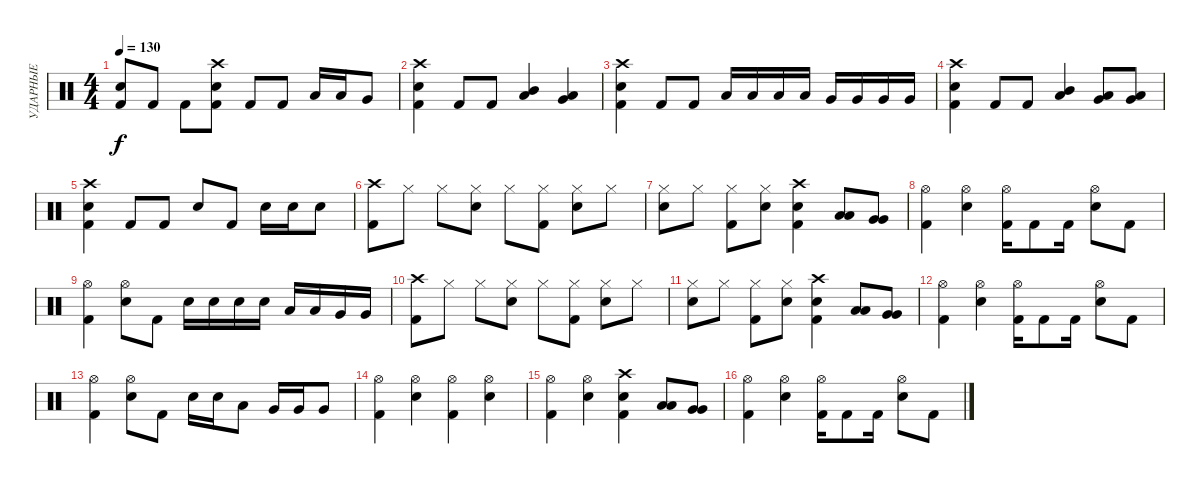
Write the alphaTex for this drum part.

\track ("УДАРНЫЕ" "УДАРНЫЕ") {instrument percussion}
\staff {score}
\articulation defaults
\ts (4 4)
\tempo 130
\clef neutral
\ks c
("Snare (hit) 2" "Kick (hit) 2").8{dy f} "Kick (hit) 2".8 "Kick (hit) 2".8 ("Crash high (hit)" "Snare (hit) 2" "Kick (hit) 2").8 "Kick (hit) 2".8 "Kick (hit) 2".8 "Low Tom (hit)".16 "Low Tom (hit)".16 "Very Low Tom (hit)".8 |
("Snare (hit) 2" "Kick (hit) 2" "Crash high (hit)").4 "Kick (hit) 2".8 "Kick (hit) 2".8 ("Low Tom (hit)" "Mid Tom (hit)").4 ("Very Low Tom (hit)" "Low Tom (hit)").4 |
("Snare (hit) 2" "Kick (hit) 2" "Crash high (hit)").4 "Kick (hit) 2".8 "Kick (hit) 2".8 "Low Tom (hit)".16 "Low Tom (hit)".16 "Low Tom (hit)".16 "Low Tom (hit)".16 "Very Low Tom (hit)".16 "Very Low Tom (hit)".16 "Very Low Tom (hit)".16 "Very Low Tom (hit)".16 |
("Snare (hit) 2" "Kick (hit) 2" "Crash high (hit)").4 "Kick (hit) 2".8 "Kick (hit) 2".8 ("Low Tom (hit)" "Mid Tom (hit)").4 ("Very Low Tom (hit)" "Low Tom (hit)").8 ("Very Low Tom (hit)" "Low Tom (hit)").8 |
("Snare (hit) 2" "Kick (hit) 2" "Crash high (hit)").4 "Kick (hit) 2".8 "Kick (hit) 2".8 "Snare (hit) 2".8 "Kick (hit) 2".8 "Snare (hit) 2".16 "Snare (hit) 2".16 "Snare (hit) 2".8 |
("Crash high (hit)" "Kick (hit) 2").8 "Hi-Hat (closed)".8 "Hi-Hat (closed)".8 ("Hi-Hat (closed)" "Snare (hit) 2").8 "Hi-Hat (closed)".8 ("Hi-Hat (closed)" "Kick (hit) 2").8 ("Hi-Hat (closed)" "Snare (hit) 2").8 "Hi-Hat (closed)".8 |
("Hi-Hat (closed)" "Snare (hit) 2").8 "Hi-Hat (closed)".8 ("Hi-Hat (closed)" "Kick (hit) 2").8 ("Hi-Hat (closed)" "Snare (hit) 2").8 ("Snare (hit) 2" "Kick (hit) 2" "Crash high (hit)").4 ("Low Tom (hit)" "Low Tom (hit)").8 ("Very Low Tom (hit)" "Very Low Tom (hit)").8 |
("Hi-Hat (open)" "Kick (hit) 2").4 ("Hi-Hat (open)" "Snare (hit) 2").4 ("Hi-Hat (open)" "Kick (hit) 2").16 "Kick (hit) 2".8 "Kick (hit) 2".16 ("Hi-Hat (open)" "Snare (hit) 2").8 "Kick (hit) 2".8 |
("Hi-Hat (open)" "Kick (hit) 2").4 ("Hi-Hat (open)" "Snare (hit) 2").8 "Kick (hit) 2".8 "Snare (hit) 2".16 "Snare (hit) 2".16 "Snare (hit) 2".16 "Snare (hit) 2".16 "Low Tom (hit)".16 "Low Tom (hit)".16 "Very Low Tom (hit)".16 "Very Low Tom (hit)".16 |
("Crash high (hit)" "Kick (hit) 2").8 "Hi-Hat (closed)".8 "Hi-Hat (closed)".8 ("Hi-Hat (closed)" "Snare (hit) 2").8 "Hi-Hat (closed)".8 ("Hi-Hat (closed)" "Kick (hit) 2").8 ("Hi-Hat (closed)" "Snare (hit) 2").8 "Hi-Hat (closed)".8 |
("Hi-Hat (closed)" "Snare (hit) 2").8 "Hi-Hat (closed)".8 ("Hi-Hat (closed)" "Kick (hit) 2").8 ("Hi-Hat (closed)" "Snare (hit) 2").8 ("Snare (hit) 2" "Kick (hit) 2" "Crash high (hit)").4 ("Low Tom (hit)" "Low Tom (hit)").8 ("Very Low Tom (hit)" "Very Low Tom (hit)").8 |
("Hi-Hat (open)" "Kick (hit) 2").4 ("Hi-Hat (open)" "Snare (hit) 2").4 ("Hi-Hat (open)" "Kick (hit) 2").16 "Kick (hit) 2".8 "Kick (hit) 2".16 ("Hi-Hat (open)" "Snare (hit) 2").8 "Kick (hit) 2".8 |
("Hi-Hat (open)" "Kick (hit) 2").4 ("Hi-Hat (open)" "Snare (hit) 2").8 "Kick (hit) 2".8 "Snare (hit) 2".16 "Snare (hit) 2".16 "Low Tom (hit)".8 "Very Low Tom (hit)".16 "Very Low Tom (hit)".16 "Very Low Tom (hit)".8 |
("Kick (hit) 2" "Hi-Hat (open)").4 ("Snare (hit) 2" "Hi-Hat (open)").4 ("Kick (hit) 2" "Hi-Hat (open)").4 ("Snare (hit) 2" "Hi-Hat (open)").4 |
("Kick (hit) 2" "Hi-Hat (open)").4 ("Snare (hit) 2" "Hi-Hat (open)").4 ("Snare (hit) 2" "Kick (hit) 2" "Crash high (hit)").4 ("Low Tom (hit)" "Low Tom (hit)").8 ("Very Low Tom (hit)" "Very Low Tom (hit)").8 |
("Hi-Hat (open)" "Kick (hit) 2").4 ("Hi-Hat (open)" "Snare (hit) 2").4 ("Hi-Hat (open)" "Kick (hit) 2").16 "Kick (hit) 2".8 "Kick (hit) 2".16 ("Hi-Hat (open)" "Snare (hit) 2").8 "Kick (hit) 2".8
